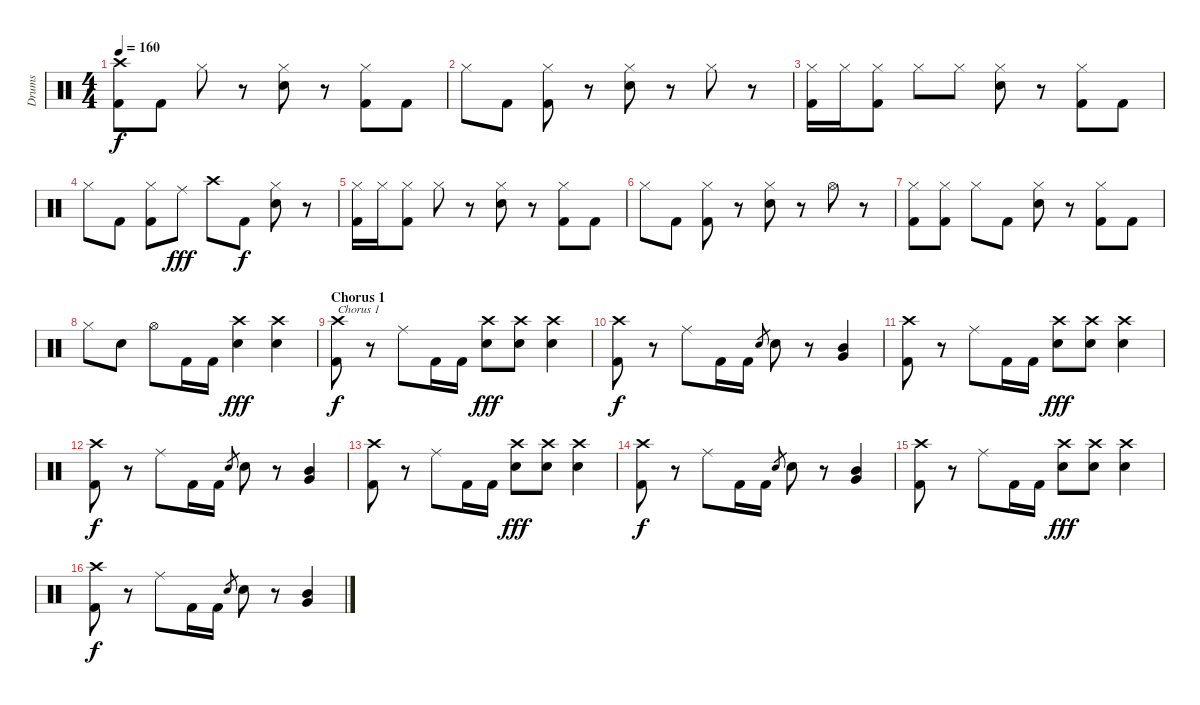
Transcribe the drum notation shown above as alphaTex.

\track ("Drums" "Drums") {instrument percussion}
\staff {score}
\articulation defaults
\ts (4 4)
\tempo 160
\clef neutral
\ks c
("Crash high (hit)" "Kick (hit) 2").8{dy f} "Kick (hit) 2".8 "Hi-Hat (closed)".8 r.8 ("Hi-Hat (closed)" "Electric Snare (hit)").8 r.8 ("Hi-Hat (closed)" "Kick (hit) 2").8 "Kick (hit) 2".8 |
"Hi-Hat (closed)".8 "Kick (hit) 2".8 ("Hi-Hat (closed)" "Kick (hit) 2").8 r.8 ("Hi-Hat (closed)" "Electric Snare (hit)").8 r.8 "Hi-Hat (closed)".8 r.8 |
("Hi-Hat (closed)" "Kick (hit) 2").16 "Hi-Hat (closed)".16 ("Hi-Hat (closed)" "Kick (hit) 2").8 "Hi-Hat (closed)".8 "Hi-Hat (closed)".8 ("Hi-Hat (closed)" "Electric Snare (hit)").8 r.8 ("Hi-Hat (closed)" "Kick (hit) 2").8 "Kick (hit) 2".8 |
"Hi-Hat (closed)".8 "Kick (hit) 2".8 ("Hi-Hat (closed)" "Kick (hit) 2").8 "Ride (middle)".8{dy fff} "Crash high (hit)".8 "Kick (hit) 2".8{dy f} ("Hi-Hat (closed)" "Electric Snare (hit)").8 r.8 |
("Hi-Hat (closed)" "Kick (hit) 2").16 "Hi-Hat (closed)".16 ("Hi-Hat (closed)" "Kick (hit) 2").8 "Hi-Hat (closed)".8 r.8 ("Hi-Hat (closed)" "Electric Snare (hit)").8 r.8 ("Hi-Hat (closed)" "Kick (hit) 2").8 "Kick (hit) 2".8 |
"Hi-Hat (closed)".8 "Kick (hit) 2".8 ("Hi-Hat (closed)" "Kick (hit) 2").8 r.8 ("Hi-Hat (closed)" "Electric Snare (hit)").8 r.8 "Hi-Hat (open)".8 r.8 |
("Hi-Hat (closed)" "Kick (hit) 2").8 ("Hi-Hat (closed)" "Kick (hit) 2").8 "Hi-Hat (closed)".8 "Kick (hit) 2".8 ("Hi-Hat (closed)" "Electric Snare (hit)").8 r.8 ("Hi-Hat (closed)" "Kick (hit) 2").8 "Kick (hit) 2".8 |
"Hi-Hat (closed)".8 "Electric Snare (hit)".8 "Hi-Hat (open)".8 "Kick (hit) 2".16 "Kick (hit) 2".16 ("Crash high (hit)" "Electric Snare (hit)").4{dy fff} ("Crash high (hit)" "Electric Snare (hit)").4 |
\section ("" "Chorus 1")
("Crash high (hit)" "Kick (hit) 2").8{txt "Chorus 1" dy f} r.8 "Ride (middle)".8 "Kick (hit) 2".16 "Kick (hit) 2".16 ("Crash high (hit)" "Electric Snare (hit)").8{dy fff} ("Crash high (hit)" "Electric Snare (hit)").8 ("Crash high (hit)" "Electric Snare (hit)").4 |
("Crash high (hit)" "Kick (hit) 2").8{dy f} r.8 "Ride (middle)".8 "Kick (hit) 2".16 "Kick (hit) 2".16 "Electric Snare (hit)".8{gr} "Electric Snare (hit)".8 r.8 ("Mid Tom (hit)" "Very Low Tom (hit)").4 |
("Crash high (hit)" "Kick (hit) 2").8 r.8 "Ride (middle)".8 "Kick (hit) 2".16 "Kick (hit) 2".16 ("Crash high (hit)" "Electric Snare (hit)").8{dy fff} ("Crash high (hit)" "Electric Snare (hit)").8 ("Crash high (hit)" "Electric Snare (hit)").4 |
("Crash high (hit)" "Kick (hit) 2").8{dy f} r.8 "Ride (middle)".8 "Kick (hit) 2".16 "Kick (hit) 2".16 "Electric Snare (hit)".8{gr} "Electric Snare (hit)".8 r.8 ("Mid Tom (hit)" "Very Low Tom (hit)").4 |
("Crash high (hit)" "Kick (hit) 2").8 r.8 "Ride (middle)".8 "Kick (hit) 2".16 "Kick (hit) 2".16 ("Crash high (hit)" "Electric Snare (hit)").8{dy fff} ("Crash high (hit)" "Electric Snare (hit)").8 ("Crash high (hit)" "Electric Snare (hit)").4 |
("Crash high (hit)" "Kick (hit) 2").8{dy f} r.8 "Ride (middle)".8 "Kick (hit) 2".16 "Kick (hit) 2".16 "Electric Snare (hit)".8{gr} "Electric Snare (hit)".8 r.8 ("Mid Tom (hit)" "Very Low Tom (hit)").4 |
("Crash high (hit)" "Kick (hit) 2").8 r.8 "Ride (middle)".8 "Kick (hit) 2".16 "Kick (hit) 2".16 ("Crash high (hit)" "Electric Snare (hit)").8{dy fff} ("Crash high (hit)" "Electric Snare (hit)").8 ("Crash high (hit)" "Electric Snare (hit)").4 |
("Crash high (hit)" "Kick (hit) 2").8{dy f} r.8 "Ride (middle)".8 "Kick (hit) 2".16 "Kick (hit) 2".16 "Electric Snare (hit)".8{gr} "Electric Snare (hit)".8 r.8 ("Mid Tom (hit)" "Very Low Tom (hit)").4
